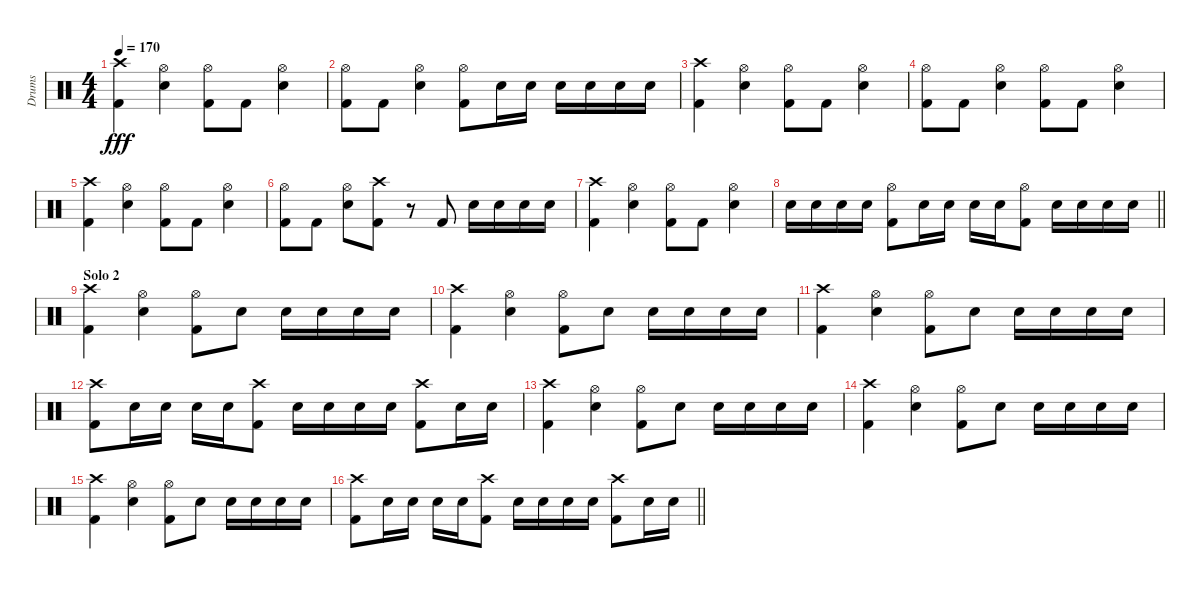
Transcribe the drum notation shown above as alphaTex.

\track ("Drums" "Drums") {instrument percussion}
\staff {score}
\articulation defaults
\ts (4 4)
\tempo 170
\clef neutral
\ks c
("Crash high (hit)" "Kick (hit) 2").4{dy fff} ("Hi-Hat (open)" "Snare (hit) 2").4 ("Hi-Hat (open)" "Kick (hit) 2").8 "Kick (hit) 2".8 ("Hi-Hat (open)" "Snare (hit) 2").4 |
("Hi-Hat (open)" "Kick (hit) 2").8 "Kick (hit) 2".8 ("Hi-Hat (open)" "Snare (hit) 2").4 ("Hi-Hat (open)" "Kick (hit) 2").8 "Snare (hit) 2".16 "Snare (hit) 2".16 "Snare (hit) 2".16 "Snare (hit) 2".16 "Snare (hit) 2".16 "Snare (hit) 2".16 |
("Crash high (hit)" "Kick (hit) 2").4 ("Hi-Hat (open)" "Snare (hit) 2").4 ("Hi-Hat (open)" "Kick (hit) 2").8 "Kick (hit) 2".8 ("Hi-Hat (open)" "Snare (hit) 2").4 |
("Hi-Hat (open)" "Kick (hit) 2").8 "Kick (hit) 2".8 ("Hi-Hat (open)" "Snare (hit) 2").4 ("Hi-Hat (open)" "Kick (hit) 2").8 "Kick (hit) 2".8 ("Hi-Hat (open)" "Snare (hit) 2").4 |
("Crash high (hit)" "Kick (hit) 2").4 ("Hi-Hat (open)" "Snare (hit) 2").4 ("Hi-Hat (open)" "Kick (hit) 2").8 "Kick (hit) 2".8 ("Hi-Hat (open)" "Snare (hit) 2").4 |
("Hi-Hat (open)" "Kick (hit) 2").8 "Kick (hit) 2".8 ("Hi-Hat (open)" "Snare (hit) 2").8 ("Crash high (hit)" "Kick (hit) 2").8 r.8 "Kick (hit) 2".8 "Snare (hit) 2".16 "Snare (hit) 2".16 "Snare (hit) 2".16 "Snare (hit) 2".16 |
("Crash high (hit)" "Kick (hit) 2").4 ("Hi-Hat (open)" "Snare (hit) 2").4 ("Hi-Hat (open)" "Kick (hit) 2").8 "Kick (hit) 2".8 ("Hi-Hat (open)" "Snare (hit) 2").4 |
\barLineRight lightlight "Snare (hit) 2".16 "Snare (hit) 2".16 "Snare (hit) 2".16 "Snare (hit) 2".16
("Hi-Hat (open)" "Kick (hit) 2").8 "Snare (hit) 2".16 "Snare (hit) 2".16 "Snare (hit) 2".16 "Snare (hit) 2".16 ("Hi-Hat (open)" "Kick (hit) 2").8 "Snare (hit) 2".16 "Snare (hit) 2".16 "Snare (hit) 2".16 "Snare (hit) 2".16 |
\section ("" "Solo 2")
("Crash high (hit)" "Kick (hit) 2").4 ("Hi-Hat (open)" "Snare (hit) 2").4 ("Hi-Hat (open)" "Kick (hit) 2").8 "Snare (hit) 2".8 "Snare (hit) 2".16 "Snare (hit) 2".16 "Snare (hit) 2".16 "Snare (hit) 2".16 |
("Crash high (hit)" "Kick (hit) 2").4 ("Hi-Hat (open)" "Snare (hit) 2").4 ("Hi-Hat (open)" "Kick (hit) 2").8 "Snare (hit) 2".8 "Snare (hit) 2".16 "Snare (hit) 2".16 "Snare (hit) 2".16 "Snare (hit) 2".16 |
("Crash high (hit)" "Kick (hit) 2").4 ("Hi-Hat (open)" "Snare (hit) 2").4 ("Hi-Hat (open)" "Kick (hit) 2").8 "Snare (hit) 2".8 "Snare (hit) 2".16 "Snare (hit) 2".16 "Snare (hit) 2".16 "Snare (hit) 2".16 |
("Crash high (hit)" "Kick (hit) 2").8 "Snare (hit) 2".16 "Snare (hit) 2".16 "Snare (hit) 2".16 "Snare (hit) 2".16 ("Crash high (hit)" "Kick (hit) 2").8 "Snare (hit) 2".16 "Snare (hit) 2".16 "Snare (hit) 2".16 "Snare (hit) 2".16 ("Crash high (hit)" "Kick (hit) 2").8 "Snare (hit) 2".16 "Snare (hit) 2".16 |
("Crash high (hit)" "Kick (hit) 2").4 ("Hi-Hat (open)" "Snare (hit) 2").4 ("Hi-Hat (open)" "Kick (hit) 2").8 "Snare (hit) 2".8 "Snare (hit) 2".16 "Snare (hit) 2".16 "Snare (hit) 2".16 "Snare (hit) 2".16 |
("Crash high (hit)" "Kick (hit) 2").4 ("Hi-Hat (open)" "Snare (hit) 2").4 ("Hi-Hat (open)" "Kick (hit) 2").8 "Snare (hit) 2".8 "Snare (hit) 2".16 "Snare (hit) 2".16 "Snare (hit) 2".16 "Snare (hit) 2".16 |
("Crash high (hit)" "Kick (hit) 2").4 ("Hi-Hat (open)" "Snare (hit) 2").4 ("Hi-Hat (open)" "Kick (hit) 2").8 "Snare (hit) 2".8 "Snare (hit) 2".16 "Snare (hit) 2".16 "Snare (hit) 2".16 "Snare (hit) 2".16 |
\barLineRight lightlight
("Crash high (hit)" "Kick (hit) 2").8 "Snare (hit) 2".16 "Snare (hit) 2".16 "Snare (hit) 2".16 "Snare (hit) 2".16 ("Crash high (hit)" "Kick (hit) 2").8 "Snare (hit) 2".16 "Snare (hit) 2".16 "Snare (hit) 2".16 "Snare (hit) 2".16 ("Crash high (hit)" "Kick (hit) 2").8 "Snare (hit) 2".16 "Snare (hit) 2".16
